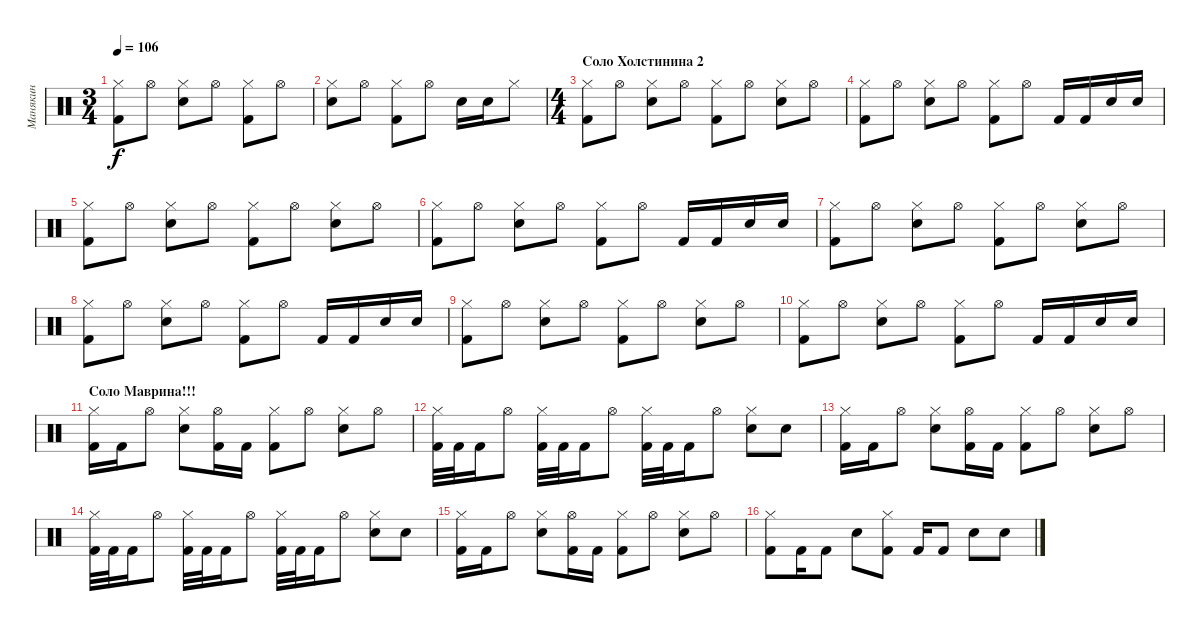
\track ("Манякин" "Манякин") {instrument percussion}
\staff {score}
\articulation defaults
\ts (3 4)
\tempo 106
\clef neutral
\ks c
("Hi-Hat (closed)" "Kick (hit) 2").8{dy f} "Hi-Hat (open)".8 ("Hi-Hat (closed)" "Electric Snare (hit)").8 "Hi-Hat (open)".8 ("Hi-Hat (closed)" "Kick (hit) 2").8 "Hi-Hat (open)".8 |
("Hi-Hat (closed)" "Electric Snare (hit)").8 "Hi-Hat (open)".8 ("Hi-Hat (closed)" "Kick (hit) 2").8 "Hi-Hat (open)".8 "Electric Snare (hit)".16 "Electric Snare (hit)".16 "Hi-Hat (closed)".8 |
\ts (4 4)
\section ("" "Соло Холстинина 2")
("Hi-Hat (closed)" "Kick (hit) 2").8 "Hi-Hat (open)".8 ("Hi-Hat (closed)" "Electric Snare (hit)").8 "Hi-Hat (open)".8 ("Hi-Hat (closed)" "Kick (hit) 2").8 "Hi-Hat (open)".8 ("Hi-Hat (closed)" "Electric Snare (hit)").8 "Hi-Hat (open)".8 |
("Hi-Hat (closed)" "Kick (hit) 2").8 "Hi-Hat (open)".8 ("Hi-Hat (closed)" "Electric Snare (hit)").8 "Hi-Hat (open)".8 ("Hi-Hat (closed)" "Kick (hit) 2").8 "Hi-Hat (open)".8 "Kick (hit) 2".16 "Kick (hit) 2".16 "Electric Snare (hit)".16 "Electric Snare (hit)".16 |
("Hi-Hat (closed)" "Kick (hit) 2").8 "Hi-Hat (open)".8 ("Hi-Hat (closed)" "Electric Snare (hit)").8 "Hi-Hat (open)".8 ("Hi-Hat (closed)" "Kick (hit) 2").8 "Hi-Hat (open)".8 ("Hi-Hat (closed)" "Electric Snare (hit)").8 "Hi-Hat (open)".8 |
("Hi-Hat (closed)" "Kick (hit) 2").8 "Hi-Hat (open)".8 ("Hi-Hat (closed)" "Electric Snare (hit)").8 "Hi-Hat (open)".8 ("Hi-Hat (closed)" "Kick (hit) 2").8 "Hi-Hat (open)".8 "Kick (hit) 2".16 "Kick (hit) 2".16 "Electric Snare (hit)".16 "Electric Snare (hit)".16 |
("Hi-Hat (closed)" "Kick (hit) 2").8 "Hi-Hat (open)".8 ("Hi-Hat (closed)" "Electric Snare (hit)").8 "Hi-Hat (open)".8 ("Hi-Hat (closed)" "Kick (hit) 2").8 "Hi-Hat (open)".8 ("Hi-Hat (closed)" "Electric Snare (hit)").8 "Hi-Hat (open)".8 |
("Hi-Hat (closed)" "Kick (hit) 2").8 "Hi-Hat (open)".8 ("Hi-Hat (closed)" "Electric Snare (hit)").8 "Hi-Hat (open)".8 ("Hi-Hat (closed)" "Kick (hit) 2").8 "Hi-Hat (open)".8 "Kick (hit) 2".16 "Kick (hit) 2".16 "Electric Snare (hit)".16 "Electric Snare (hit)".16 |
("Hi-Hat (closed)" "Kick (hit) 2").8 "Hi-Hat (open)".8 ("Hi-Hat (closed)" "Electric Snare (hit)").8 "Hi-Hat (open)".8 ("Hi-Hat (closed)" "Kick (hit) 2").8 "Hi-Hat (open)".8 ("Hi-Hat (closed)" "Electric Snare (hit)").8 "Hi-Hat (open)".8 |
("Hi-Hat (closed)" "Kick (hit) 2").8 "Hi-Hat (open)".8 ("Hi-Hat (closed)" "Electric Snare (hit)").8 "Hi-Hat (open)".8 ("Hi-Hat (closed)" "Kick (hit) 2").8 "Hi-Hat (open)".8 "Kick (hit) 2".16 "Kick (hit) 2".16 "Electric Snare (hit)".16 "Electric Snare (hit)".16 |
\section ("" "Соло Маврина!!!")
("Hi-Hat (closed)" "Kick (hit) 2").16 "Kick (hit) 2".16 "Hi-Hat (open)".8 ("Hi-Hat (closed)" "Electric Snare (hit)").8 ("Kick (hit) 2" "Hi-Hat (open)").16 "Kick (hit) 2".16 ("Hi-Hat (closed)" "Kick (hit) 2").8 "Hi-Hat (open)".8 ("Hi-Hat (closed)" "Electric Snare (hit)").8 "Hi-Hat (open)".8 |
("Hi-Hat (closed)" "Kick (hit) 2").32 "Kick (hit) 2".32 "Kick (hit) 2".16 "Hi-Hat (open)".8 ("Hi-Hat (closed)" "Kick (hit) 2").32 "Kick (hit) 2".32 "Kick (hit) 2".16 "Hi-Hat (open)".8 ("Hi-Hat (closed)" "Kick (hit) 2").32 "Kick (hit) 2".32 "Kick (hit) 2".16 "Hi-Hat (open)".8 ("Hi-Hat (closed)" "Electric Snare (hit)").8 "Electric Snare (hit)".8 |
("Hi-Hat (closed)" "Kick (hit) 2").16 "Kick (hit) 2".16 "Hi-Hat (open)".8 ("Hi-Hat (closed)" "Electric Snare (hit)").8 ("Kick (hit) 2" "Hi-Hat (open)").16 "Kick (hit) 2".16 ("Hi-Hat (closed)" "Kick (hit) 2").8 "Hi-Hat (open)".8 ("Hi-Hat (closed)" "Electric Snare (hit)").8 "Hi-Hat (open)".8 |
("Hi-Hat (closed)" "Kick (hit) 2").32 "Kick (hit) 2".32 "Kick (hit) 2".16 "Hi-Hat (open)".8 ("Hi-Hat (closed)" "Kick (hit) 2").32 "Kick (hit) 2".32 "Kick (hit) 2".16 "Hi-Hat (open)".8 ("Hi-Hat (closed)" "Kick (hit) 2").32 "Kick (hit) 2".32 "Kick (hit) 2".16 "Hi-Hat (open)".8 ("Hi-Hat (closed)" "Electric Snare (hit)").8 "Electric Snare (hit)".8 |
("Hi-Hat (closed)" "Kick (hit) 2").16 "Kick (hit) 2".16 "Hi-Hat (open)".8 ("Hi-Hat (closed)" "Electric Snare (hit)").8 ("Kick (hit) 2" "Hi-Hat (open)").16 "Kick (hit) 2".16 ("Hi-Hat (closed)" "Kick (hit) 2").8 "Hi-Hat (open)".8 ("Hi-Hat (closed)" "Electric Snare (hit)").8 "Hi-Hat (open)".8 |
("Hi-Hat (closed)" "Kick (hit) 2").8 "Kick (hit) 2".16 "Kick (hit) 2".8 "Electric Snare (hit)".8 ("Hi-Hat (closed)" "Kick (hit) 2").8 "Kick (hit) 2".16 "Kick (hit) 2".8 "Electric Snare (hit)".8 "Electric Snare (hit)".8
